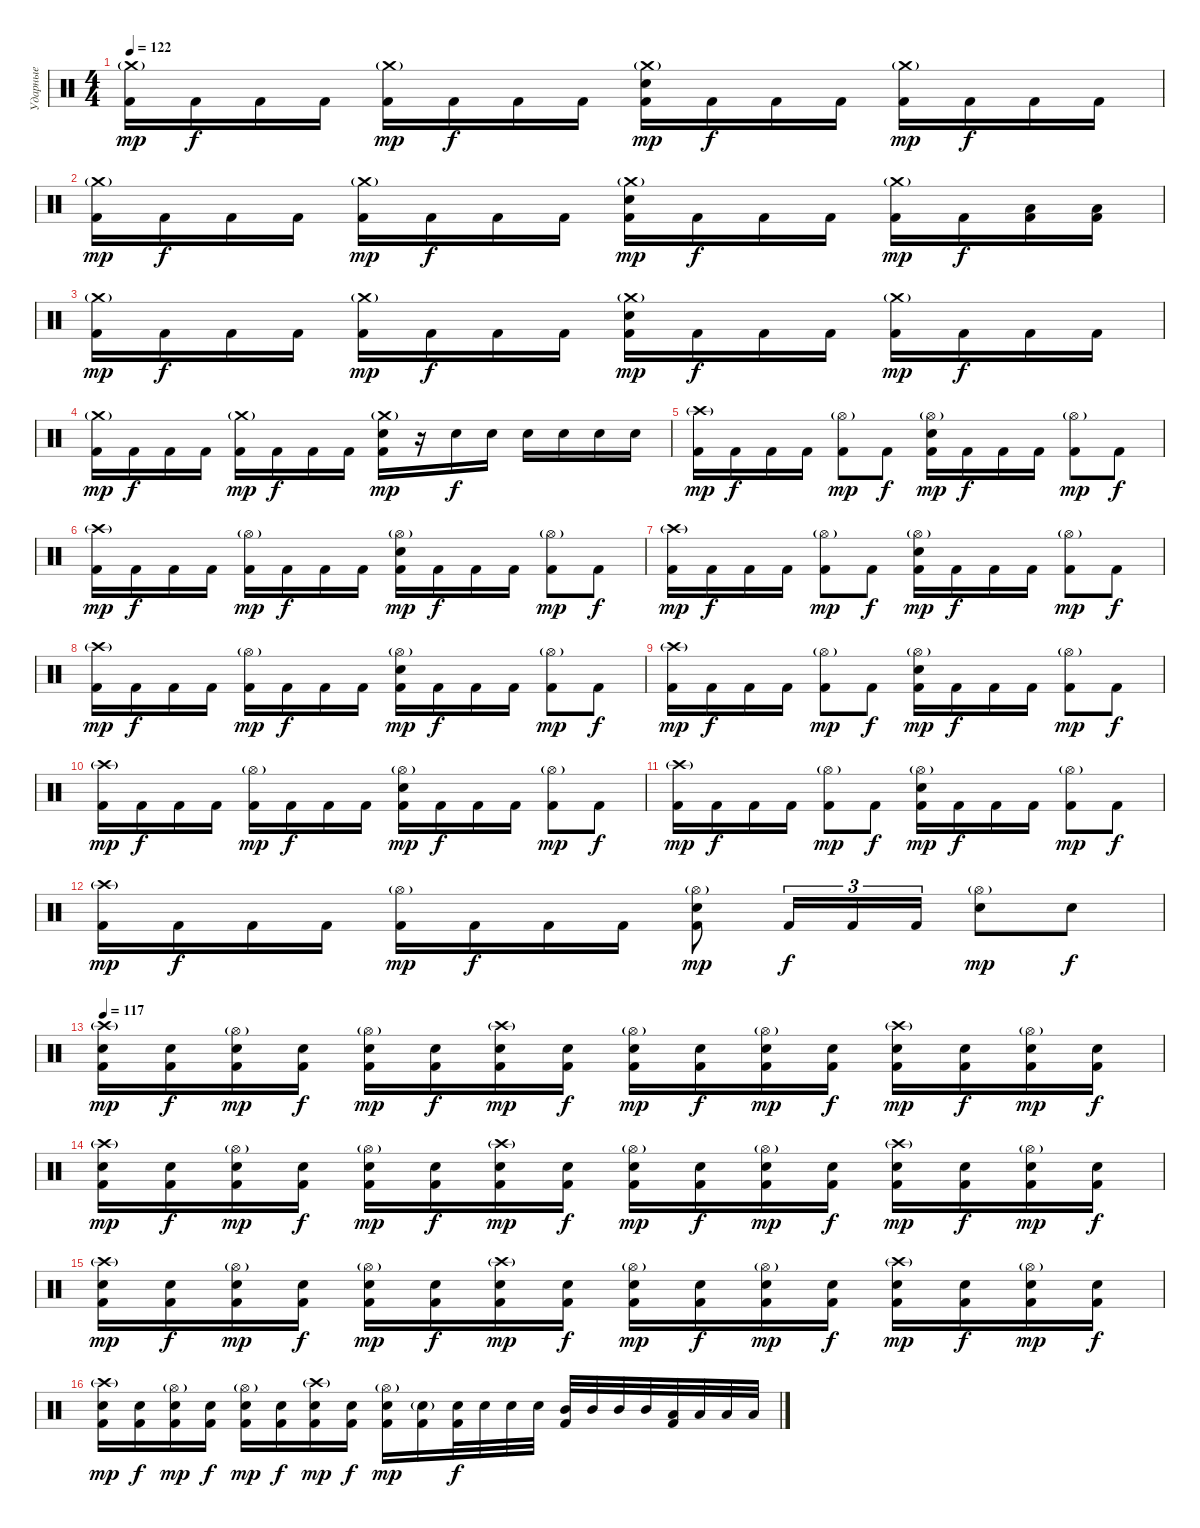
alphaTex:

\track ("Ударные" "Ударные") {instrument percussion}
\staff {score}
\articulation defaults
\ts (4 4)
\tempo 122
\clef neutral
\ks c
("Crash medium (hit)"{g} "Kick (hit) 2").16{dy mp} "Kick (hit) 2".16{dy f} "Kick (hit) 2".16 "Kick (hit) 2".16 ("Crash medium (hit)"{g} "Kick (hit) 2").16{dy mp} "Kick (hit) 2".16{dy f} "Kick (hit) 2".16 "Kick (hit) 2".16 ("Crash medium (hit)"{g} "Electric Snare (hit)" "Kick (hit) 2").16{dy mp} "Kick (hit) 2".16{dy f} "Kick (hit) 2".16 "Kick (hit) 2".16 ("Crash medium (hit)"{g} "Kick (hit) 2").16{dy mp} "Kick (hit) 2".16{dy f} "Kick (hit) 2".16 "Kick (hit) 2".16 |
("Crash medium (hit)"{g} "Kick (hit) 2").16{dy mp} "Kick (hit) 2".16{dy f} "Kick (hit) 2".16 "Kick (hit) 2".16 ("Crash medium (hit)"{g} "Kick (hit) 2").16{dy mp} "Kick (hit) 2".16{dy f} "Kick (hit) 2".16 "Kick (hit) 2".16 ("Crash medium (hit)"{g} "Electric Snare (hit)" "Kick (hit) 2").16{dy mp} "Kick (hit) 2".16{dy f} "Kick (hit) 2".16 "Kick (hit) 2".16 ("Crash medium (hit)"{g} "Kick (hit) 2").16{dy mp} "Kick (hit) 2".16{dy f} ("Low Tom (hit)" "Kick (hit) 2").16 ("Low Tom (hit)" "Kick (hit) 2").16 |
("Crash medium (hit)"{g} "Kick (hit) 2").16{dy mp} "Kick (hit) 2".16{dy f} "Kick (hit) 2".16 "Kick (hit) 2".16 ("Crash medium (hit)"{g} "Kick (hit) 2").16{dy mp} "Kick (hit) 2".16{dy f} "Kick (hit) 2".16 "Kick (hit) 2".16 ("Crash medium (hit)"{g} "Electric Snare (hit)" "Kick (hit) 2").16{dy mp} "Kick (hit) 2".16{dy f} "Kick (hit) 2".16 "Kick (hit) 2".16 ("Crash medium (hit)"{g} "Kick (hit) 2").16{dy mp} "Kick (hit) 2".16{dy f} "Kick (hit) 2".16 "Kick (hit) 2".16 |
("Crash medium (hit)"{g} "Kick (hit) 2").16{dy mp} "Kick (hit) 2".16{dy f} "Kick (hit) 2".16 "Kick (hit) 2".16 ("Crash medium (hit)"{g} "Kick (hit) 2").16{dy mp} "Kick (hit) 2".16{dy f} "Kick (hit) 2".16 "Kick (hit) 2".16 ("Crash medium (hit)"{g} "Electric Snare (hit)" "Kick (hit) 2").16{dy mp} r.16 "Electric Snare (hit)".16{dy f} "Electric Snare (hit)".16 "Electric Snare (hit)".16 "Electric Snare (hit)".16 "Electric Snare (hit)".16 "Electric Snare (hit)".16 |
("Crash high (hit)"{g} "Kick (hit) 2").16{dy mp} "Kick (hit) 2".16{dy f} "Kick (hit) 2".16 "Kick (hit) 2".16 ("Hi-Hat (open)"{g} "Kick (hit) 2").8{dy mp} "Kick (hit) 2".8{dy f} ("Hi-Hat (open)"{g} "Electric Snare (hit)" "Kick (hit) 2").16{dy mp} "Kick (hit) 2".16{dy f} "Kick (hit) 2".16 "Kick (hit) 2".16 ("Hi-Hat (open)"{g} "Kick (hit) 2").8{dy mp} "Kick (hit) 2".8{dy f} |
("Crash high (hit)"{g} "Kick (hit) 2").16{dy mp} "Kick (hit) 2".16{dy f} "Kick (hit) 2".16 "Kick (hit) 2".16 ("Hi-Hat (open)"{g} "Kick (hit) 2").16{dy mp} "Kick (hit) 2".16{dy f} "Kick (hit) 2".16 "Kick (hit) 2".16 ("Hi-Hat (open)"{g} "Electric Snare (hit)" "Kick (hit) 2").16{dy mp} "Kick (hit) 2".16{dy f} "Kick (hit) 2".16 "Kick (hit) 2".16 ("Hi-Hat (open)"{g} "Kick (hit) 2").8{dy mp} "Kick (hit) 2".8{dy f} |
("Crash high (hit)"{g} "Kick (hit) 2").16{dy mp} "Kick (hit) 2".16{dy f} "Kick (hit) 2".16 "Kick (hit) 2".16 ("Hi-Hat (open)"{g} "Kick (hit) 2").8{dy mp} "Kick (hit) 2".8{dy f} ("Hi-Hat (open)"{g} "Electric Snare (hit)" "Kick (hit) 2").16{dy mp} "Kick (hit) 2".16{dy f} "Kick (hit) 2".16 "Kick (hit) 2".16 ("Hi-Hat (open)"{g} "Kick (hit) 2").8{dy mp} "Kick (hit) 2".8{dy f} |
("Crash high (hit)"{g} "Kick (hit) 2").16{dy mp} "Kick (hit) 2".16{dy f} "Kick (hit) 2".16 "Kick (hit) 2".16 ("Hi-Hat (open)"{g} "Kick (hit) 2").16{dy mp} "Kick (hit) 2".16{dy f} "Kick (hit) 2".16 "Kick (hit) 2".16 ("Hi-Hat (open)"{g} "Electric Snare (hit)" "Kick (hit) 2").16{dy mp} "Kick (hit) 2".16{dy f} "Kick (hit) 2".16 "Kick (hit) 2".16 ("Hi-Hat (open)"{g} "Kick (hit) 2").8{dy mp} "Kick (hit) 2".8{dy f} |
("Crash high (hit)"{g} "Kick (hit) 2").16{dy mp} "Kick (hit) 2".16{dy f} "Kick (hit) 2".16 "Kick (hit) 2".16 ("Hi-Hat (open)"{g} "Kick (hit) 2").8{dy mp} "Kick (hit) 2".8{dy f} ("Hi-Hat (open)"{g} "Electric Snare (hit)" "Kick (hit) 2").16{dy mp} "Kick (hit) 2".16{dy f} "Kick (hit) 2".16 "Kick (hit) 2".16 ("Hi-Hat (open)"{g} "Kick (hit) 2").8{dy mp} "Kick (hit) 2".8{dy f} |
("Crash high (hit)"{g} "Kick (hit) 2").16{dy mp} "Kick (hit) 2".16{dy f} "Kick (hit) 2".16 "Kick (hit) 2".16 ("Hi-Hat (open)"{g} "Kick (hit) 2").16{dy mp} "Kick (hit) 2".16{dy f} "Kick (hit) 2".16 "Kick (hit) 2".16 ("Hi-Hat (open)"{g} "Electric Snare (hit)" "Kick (hit) 2").16{dy mp} "Kick (hit) 2".16{dy f} "Kick (hit) 2".16 "Kick (hit) 2".16 ("Hi-Hat (open)"{g} "Kick (hit) 2").8{dy mp} "Kick (hit) 2".8{dy f} |
("Crash high (hit)"{g} "Kick (hit) 2").16{dy mp} "Kick (hit) 2".16{dy f} "Kick (hit) 2".16 "Kick (hit) 2".16 ("Hi-Hat (open)"{g} "Kick (hit) 2").8{dy mp} "Kick (hit) 2".8{dy f} ("Hi-Hat (open)"{g} "Electric Snare (hit)" "Kick (hit) 2").16{dy mp} "Kick (hit) 2".16{dy f} "Kick (hit) 2".16 "Kick (hit) 2".16 ("Hi-Hat (open)"{g} "Kick (hit) 2").8{dy mp} "Kick (hit) 2".8{dy f} |
("Crash high (hit)"{g} "Kick (hit) 2").16{dy mp} "Kick (hit) 2".16{dy f} "Kick (hit) 2".16 "Kick (hit) 2".16 ("Hi-Hat (open)"{g} "Kick (hit) 2").16{dy mp} "Kick (hit) 2".16{dy f} "Kick (hit) 2".16 "Kick (hit) 2".16 ("Hi-Hat (open)"{g} "Electric Snare (hit)" "Kick (hit) 2").8{dy mp} "Kick (hit) 2".16{tu (3 2) dy f} "Kick (hit) 2".16{tu (3 2)} "Kick (hit) 2".16{tu (3 2)} ("Hi-Hat (open)"{g} "Electric Snare (hit)").8{dy mp} "Electric Snare (hit)".8{dy f} |
\tempo 117
("Crash high (hit)"{g} "Electric Snare (hit)" "Kick (hit) 2").16{dy mp} ("Electric Snare (hit)" "Kick (hit) 2").16{dy f} ("Hi-Hat (open)"{g} "Electric Snare (hit)" "Kick (hit) 2").16{dy mp} ("Electric Snare (hit)" "Kick (hit) 2").16{dy f} ("Hi-Hat (open)"{g} "Electric Snare (hit)" "Kick (hit) 2").16{dy mp} ("Electric Snare (hit)" "Kick (hit) 2").16{dy f} ("Crash high (hit)"{g} "Electric Snare (hit)" "Kick (hit) 2").16{dy mp} ("Electric Snare (hit)" "Kick (hit) 2").16{dy f} ("Hi-Hat (open)"{g} "Electric Snare (hit)" "Kick (hit) 2").16{dy mp} ("Electric Snare (hit)" "Kick (hit) 2").16{dy f} ("Hi-Hat (open)"{g} "Electric Snare (hit)" "Kick (hit) 2").16{dy mp} ("Electric Snare (hit)" "Kick (hit) 2").16{dy f} ("Crash high (hit)"{g} "Electric Snare (hit)" "Kick (hit) 2").16{dy mp} ("Electric Snare (hit)" "Kick (hit) 2").16{dy f} ("Hi-Hat (open)"{g} "Electric Snare (hit)" "Kick (hit) 2").16{dy mp} ("Electric Snare (hit)" "Kick (hit) 2").16{dy f} |
("Crash high (hit)"{g} "Electric Snare (hit)" "Kick (hit) 2").16{dy mp} ("Electric Snare (hit)" "Kick (hit) 2").16{dy f} ("Hi-Hat (open)"{g} "Electric Snare (hit)" "Kick (hit) 2").16{dy mp} ("Electric Snare (hit)" "Kick (hit) 2").16{dy f} ("Hi-Hat (open)"{g} "Electric Snare (hit)" "Kick (hit) 2").16{dy mp} ("Electric Snare (hit)" "Kick (hit) 2").16{dy f} ("Crash high (hit)"{g} "Electric Snare (hit)" "Kick (hit) 2").16{dy mp} ("Electric Snare (hit)" "Kick (hit) 2").16{dy f} ("Hi-Hat (open)"{g} "Electric Snare (hit)" "Kick (hit) 2").16{dy mp} ("Electric Snare (hit)" "Kick (hit) 2").16{dy f} ("Hi-Hat (open)"{g} "Electric Snare (hit)" "Kick (hit) 2").16{dy mp} ("Electric Snare (hit)" "Kick (hit) 2").16{dy f} ("Crash high (hit)"{g} "Electric Snare (hit)" "Kick (hit) 2").16{dy mp} ("Electric Snare (hit)" "Kick (hit) 2").16{dy f} ("Hi-Hat (open)"{g} "Electric Snare (hit)" "Kick (hit) 2").16{dy mp} ("Electric Snare (hit)" "Kick (hit) 2").16{dy f} |
("Crash high (hit)"{g} "Electric Snare (hit)" "Kick (hit) 2").16{dy mp} ("Electric Snare (hit)" "Kick (hit) 2").16{dy f} ("Hi-Hat (open)"{g} "Electric Snare (hit)" "Kick (hit) 2").16{dy mp} ("Electric Snare (hit)" "Kick (hit) 2").16{dy f} ("Hi-Hat (open)"{g} "Electric Snare (hit)" "Kick (hit) 2").16{dy mp} ("Electric Snare (hit)" "Kick (hit) 2").16{dy f} ("Crash high (hit)"{g} "Electric Snare (hit)" "Kick (hit) 2").16{dy mp} ("Electric Snare (hit)" "Kick (hit) 2").16{dy f} ("Hi-Hat (open)"{g} "Electric Snare (hit)" "Kick (hit) 2").16{dy mp} ("Electric Snare (hit)" "Kick (hit) 2").16{dy f} ("Hi-Hat (open)"{g} "Electric Snare (hit)" "Kick (hit) 2").16{dy mp} ("Electric Snare (hit)" "Kick (hit) 2").16{dy f} ("Crash high (hit)"{g} "Electric Snare (hit)" "Kick (hit) 2").16{dy mp} ("Electric Snare (hit)" "Kick (hit) 2").16{dy f} ("Hi-Hat (open)"{g} "Electric Snare (hit)" "Kick (hit) 2").16{dy mp} ("Electric Snare (hit)" "Kick (hit) 2").16{dy f} |
("Crash high (hit)"{g} "Electric Snare (hit)" "Kick (hit) 2").16{dy mp} ("Electric Snare (hit)" "Kick (hit) 2").16{dy f} ("Hi-Hat (open)"{g} "Electric Snare (hit)" "Kick (hit) 2").16{dy mp} ("Electric Snare (hit)" "Kick (hit) 2").16{dy f} ("Hi-Hat (open)"{g} "Electric Snare (hit)" "Kick (hit) 2").16{dy mp} ("Electric Snare (hit)" "Kick (hit) 2").16{dy f} ("Crash high (hit)"{g} "Electric Snare (hit)" "Kick (hit) 2").16{dy mp} ("Electric Snare (hit)" "Kick (hit) 2").16{dy f} ("Hi-Hat (open)"{g} "Electric Snare (hit)" "Kick (hit) 2").16{dy mp} ("Electric Snare (hit)"{g} "Kick (hit) 2").16 ("Electric Snare (hit)" "Kick (hit) 2").32{dy f} "Electric Snare (hit)".32 "Electric Snare (hit)".32 "Electric Snare (hit)".32 ("Mid Tom (hit)" "Kick (hit) 2").32 "Mid Tom (hit)".32 "Mid Tom (hit)".32 "Mid Tom (hit)".32 ("Low Tom (hit)" "Kick (hit) 2").32 "Low Tom (hit)".32 "Low Tom (hit)".32 "Low Tom (hit)".32
